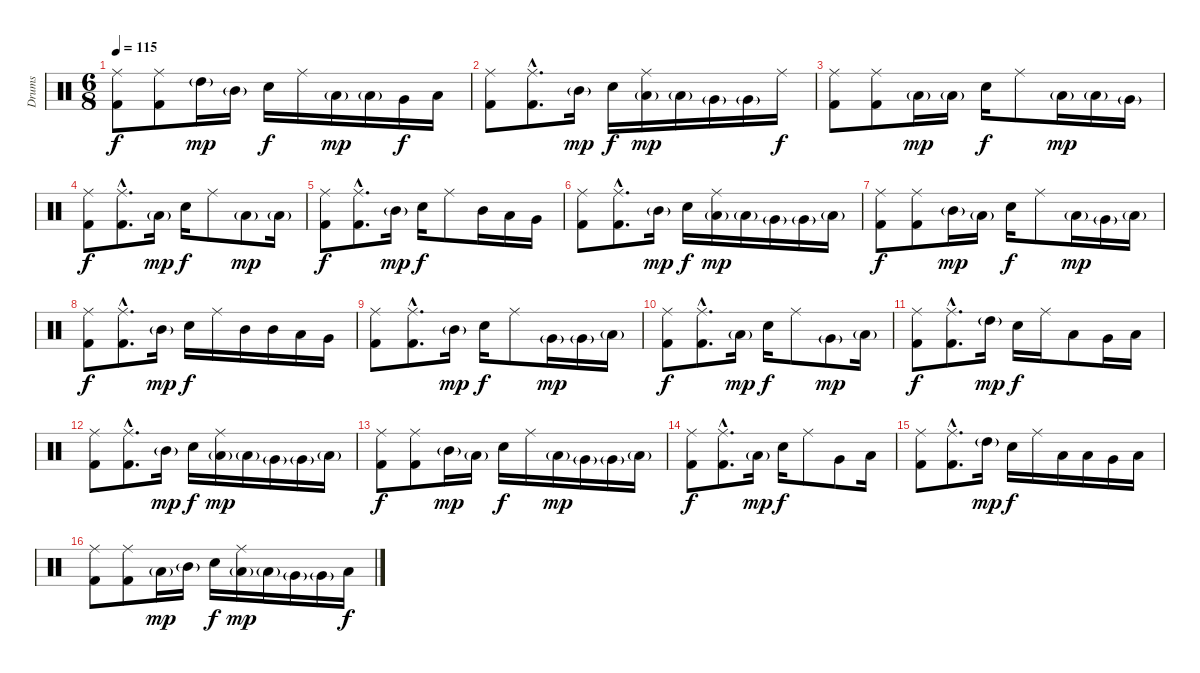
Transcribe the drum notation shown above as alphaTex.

\track ("Drums" "Drums") {instrument percussion}
\staff {score}
\articulation defaults
\ts (6 8)
\tempo 115
\clef neutral
\ks c
("Ride (middle)" "Kick (hit) 2").8{dy f} ("Ride (middle)" "Kick (hit) 2").8 "High Tom (hit)"{g}.16{dy mp} "Mid Tom (hit)"{g}.16 "Electric Snare (hit)".16{dy f} "Ride (middle)".16 "Low Tom (hit)"{g}.16{dy mp} "Low Tom (hit)"{g}.16 "Very Low Tom (hit)".16{dy f} "Low Floor Tom (hit)".16 |
("Ride (middle)" "Kick (hit) 2").8 ("Ride (middle)"{hac} "Kick (hit) 2"{hac}).8{d} "Mid Tom (hit)"{g}.16{dy mp} "Electric Snare (hit)".16{dy f} ("Ride (middle)" "Low Tom (hit)"{g}).16{dy mp} "Low Tom (hit)"{g}.16 "Very Low Tom (hit)"{g}.16 "Very Low Tom (hit)"{g}.16 "Ride (middle)".16{dy f} |
("Ride (middle)" "Kick (hit) 2").8 ("Ride (middle)" "Kick (hit) 2").8 "Low Tom (hit)"{g}.16{dy mp} "Low Tom (hit)"{g}.16 "Electric Snare (hit)".16{dy f} "Ride (middle)".8 "Low Tom (hit)"{g}.16{dy mp} "Low Tom (hit)"{g}.16 "Very Low Tom (hit)"{g}.16 |
("Ride (middle)" "Kick (hit) 2").8{dy f} ("Ride (middle)"{hac} "Kick (hit) 2"{hac}).8{d} "Low Tom (hit)"{g}.16{dy mp} "Electric Snare (hit)".16{dy f} "Ride (middle)".8 "Low Tom (hit)"{g}.8{dy mp} "Low Floor Tom (hit)"{g}.16 |
("Ride (middle)" "Kick (hit) 2").8{dy f} ("Ride (middle)"{hac} "Kick (hit) 2"{hac}).8{d} "Mid Tom (hit)"{g}.16{dy mp} "Electric Snare (hit)".16{dy f} "Ride (middle)".8 "Mid Tom (hit)".16 "Low Tom (hit)".16 "Very Low Tom (hit)".16 |
("Ride (middle)" "Kick (hit) 2").8 ("Ride (middle)"{hac} "Kick (hit) 2"{hac}).8{d} "Mid Tom (hit)"{g}.16{dy mp} "Electric Snare (hit)".16{dy f} ("Ride (middle)" "Low Tom (hit)"{g}).16{dy mp} "Low Tom (hit)"{g}.16 "Very Low Tom (hit)"{g}.16 "Very Low Tom (hit)"{g}.16 "Low Floor Tom (hit)"{g}.16 |
("Ride (middle)" "Kick (hit) 2").8{dy f} ("Ride (middle)" "Kick (hit) 2").8 "Mid Tom (hit)"{g}.16{dy mp} "Low Tom (hit)"{g}.16 "Electric Snare (hit)".16{dy f} "Ride (middle)".8 "Low Tom (hit)"{g}.16{dy mp} "Very Low Tom (hit)"{g}.16 "Low Floor Tom (hit)"{g}.16 |
("Ride (middle)" "Kick (hit) 2").8{dy f} ("Ride (middle)"{hac} "Kick (hit) 2"{hac}).8{d} "Mid Tom (hit)"{g}.16{dy mp} "Electric Snare (hit)".16{dy f} "Ride (middle)".16 "Mid Tom (hit)".16 "Mid Tom (hit)".16 "Low Tom (hit)".16 "Very Low Tom (hit)".16 |
("Ride (middle)" "Kick (hit) 2").8 ("Ride (middle)"{hac} "Kick (hit) 2"{hac}).8{d} "Mid Tom (hit)"{g}.16{dy mp} "Electric Snare (hit)".16{dy f} "Ride (middle)".8 "Very Low Tom (hit)"{g}.16{dy mp} "Very Low Tom (hit)"{g}.16 "Low Floor Tom (hit)"{g}.16 |
("Ride (middle)" "Kick (hit) 2").8{dy f} ("Ride (middle)"{hac} "Kick (hit) 2"{hac}).8{d} "Low Tom (hit)"{g}.16{dy mp} "Electric Snare (hit)".16{dy f} "Ride (middle)".8 "Very Low Tom (hit)"{g}.8{dy mp} "Low Floor Tom (hit)"{g}.16 |
("Ride (middle)" "Kick (hit) 2").8{dy f} ("Ride (middle)"{hac} "Kick (hit) 2"{hac}).8{d} "High Tom (hit)"{g}.16{dy mp} "Electric Snare (hit)".16{dy f} "Ride (middle)".16 "Low Tom (hit)".8 "Very Low Tom (hit)".16 "Low Floor Tom (hit)".16 |
("Ride (middle)" "Kick (hit) 2").8 ("Ride (middle)"{hac} "Kick (hit) 2"{hac}).8{d} "Mid Tom (hit)"{g}.16{dy mp} "Electric Snare (hit)".16{dy f} ("Ride (middle)" "Low Tom (hit)"{g}).16{dy mp} "Low Tom (hit)"{g}.16 "Very Low Tom (hit)"{g}.16 "Very Low Tom (hit)"{g}.16 "Low Floor Tom (hit)"{g}.16 |
("Ride (middle)" "Kick (hit) 2").8{dy f} ("Ride (middle)" "Kick (hit) 2").8 "Mid Tom (hit)"{g}.16{dy mp} "Low Tom (hit)"{g}.16 "Electric Snare (hit)".16{dy f} "Ride (middle)".16 "Low Tom (hit)"{g}.16{dy mp} "Very Low Tom (hit)"{g}.16 "Very Low Tom (hit)"{g}.16 "Low Floor Tom (hit)"{g}.16 |
("Ride (middle)" "Kick (hit) 2").8{dy f} ("Ride (middle)"{hac} "Kick (hit) 2"{hac}).8{d} "Low Tom (hit)"{g}.16{dy mp} "Electric Snare (hit)".16{dy f} "Ride (middle)".8 "Very Low Tom (hit)".8 "Low Floor Tom (hit)".16 |
("Ride (middle)" "Kick (hit) 2").8 ("Ride (middle)"{hac} "Kick (hit) 2"{hac}).8{d} "High Tom (hit)"{g}.16{dy mp} "Electric Snare (hit)".16{dy f} "Ride (middle)".16 "Low Tom (hit)".16 "Low Tom (hit)".16 "Very Low Tom (hit)".16 "Low Floor Tom (hit)".16 |
("Ride (middle)" "Kick (hit) 2").8 ("Ride (middle)" "Kick (hit) 2").8 "Low Tom (hit)"{g}.16{dy mp} "Mid Tom (hit)"{g}.16 "Electric Snare (hit)".16{dy f} ("Ride (middle)" "Low Tom (hit)"{g}).16{dy mp} "Low Tom (hit)"{g}.16 "Very Low Tom (hit)"{g}.16 "Very Low Tom (hit)"{g}.16 "Low Floor Tom (hit)".16{dy f}
